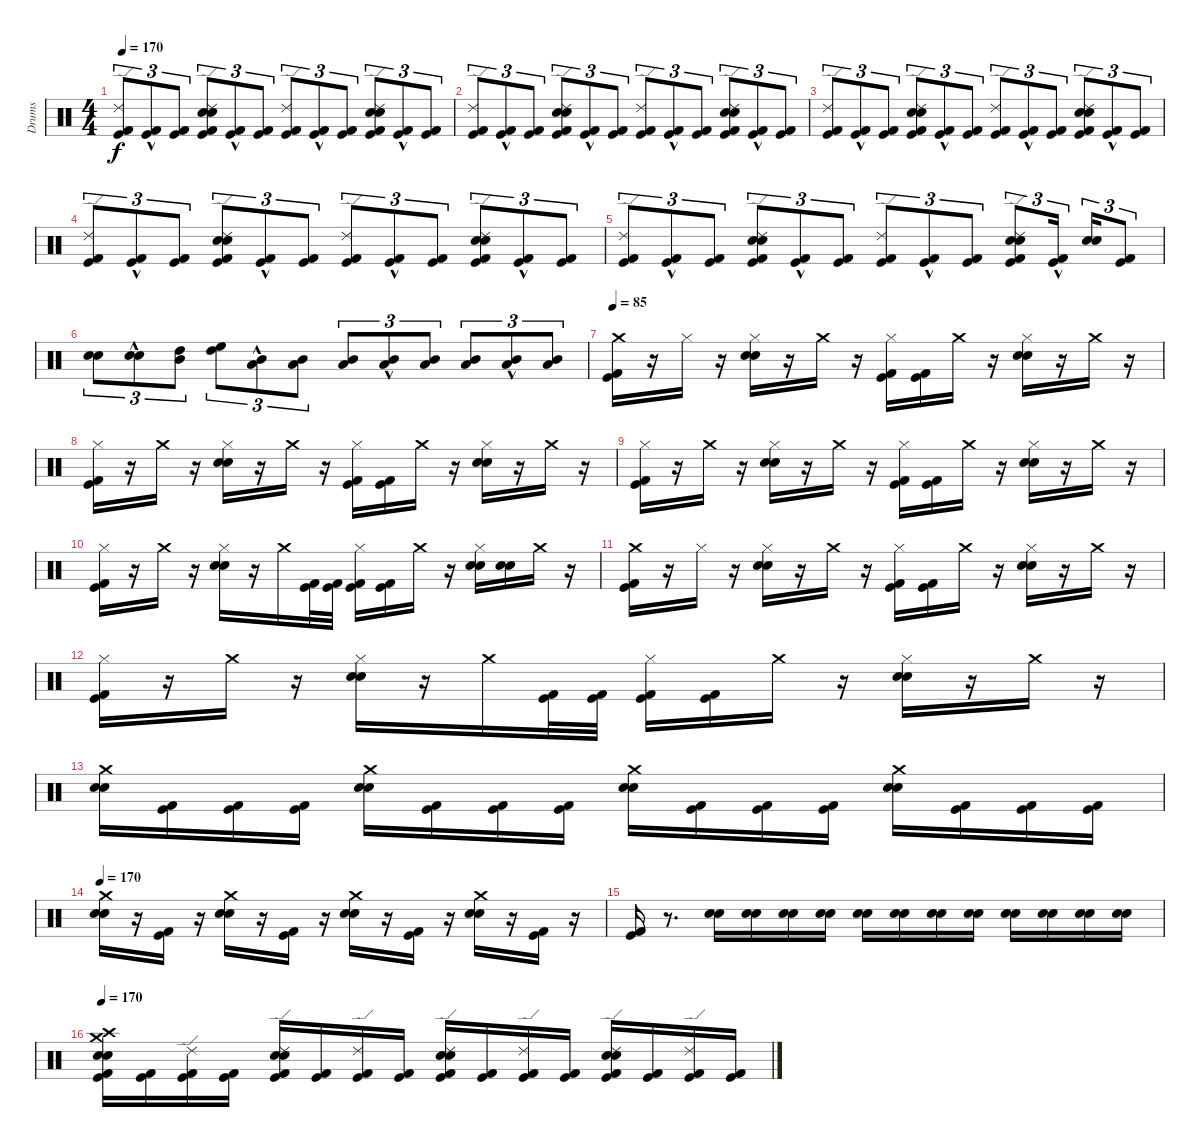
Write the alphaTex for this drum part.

\track ("Drums" "Drums") {instrument percussion}
\staff {score}
\articulation defaults
\ts (4 4)
\tempo 170
\clef neutral
\ks c
("Ride (edge) 2" "Kick (hit) 2" "Kick (hit)").8{tu (3 2) dy f} ("Kick (hit) 2"{hac} "Kick (hit)"{hac}).8{tu (3 2)} ("Kick (hit) 2" "Kick (hit)").8{tu (3 2)} ("Ride (edge) 2" "Electric Snare (hit)" "Snare (hit) 2" "Kick (hit) 2" "Kick (hit)").8{tu (3 2)} ("Kick (hit) 2"{hac} "Kick (hit)"{hac}).8{tu (3 2)} ("Kick (hit) 2" "Kick (hit)").8{tu (3 2)} ("Ride (edge) 2" "Kick (hit) 2" "Kick (hit)").8{tu (3 2)} ("Kick (hit) 2"{hac} "Kick (hit)"{hac}).8{tu (3 2)} ("Kick (hit) 2" "Kick (hit)").8{tu (3 2)} ("Ride (edge) 2" "Electric Snare (hit)" "Snare (hit) 2" "Kick (hit) 2" "Kick (hit)").8{tu (3 2)} ("Kick (hit) 2"{hac} "Kick (hit)"{hac}).8{tu (3 2)} ("Kick (hit) 2" "Kick (hit)").8{tu (3 2)} |
("Ride (edge) 2" "Kick (hit) 2" "Kick (hit)").8{tu (3 2)} ("Kick (hit) 2"{hac} "Kick (hit)"{hac}).8{tu (3 2)} ("Kick (hit) 2" "Kick (hit)").8{tu (3 2)} ("Ride (edge) 2" "Electric Snare (hit)" "Snare (hit) 2" "Kick (hit) 2" "Kick (hit)").8{tu (3 2)} ("Kick (hit) 2"{hac} "Kick (hit)"{hac}).8{tu (3 2)} ("Kick (hit) 2" "Kick (hit)").8{tu (3 2)} ("Ride (edge) 2" "Kick (hit) 2" "Kick (hit)").8{tu (3 2)} ("Kick (hit) 2"{hac} "Kick (hit)"{hac}).8{tu (3 2)} ("Kick (hit) 2" "Kick (hit)").8{tu (3 2)} ("Ride (edge) 2" "Electric Snare (hit)" "Snare (hit) 2" "Kick (hit) 2" "Kick (hit)").8{tu (3 2)} ("Kick (hit) 2"{hac} "Kick (hit)"{hac}).8{tu (3 2)} ("Kick (hit) 2" "Kick (hit)").8{tu (3 2)} |
("Ride (edge) 2" "Kick (hit) 2" "Kick (hit)").8{tu (3 2)} ("Kick (hit) 2"{hac} "Kick (hit)"{hac}).8{tu (3 2)} ("Kick (hit) 2" "Kick (hit)").8{tu (3 2)} ("Ride (edge) 2" "Electric Snare (hit)" "Snare (hit) 2" "Kick (hit) 2" "Kick (hit)").8{tu (3 2)} ("Kick (hit) 2"{hac} "Kick (hit)"{hac}).8{tu (3 2)} ("Kick (hit) 2" "Kick (hit)").8{tu (3 2)} ("Ride (edge) 2" "Kick (hit) 2" "Kick (hit)").8{tu (3 2)} ("Kick (hit) 2"{hac} "Kick (hit)"{hac}).8{tu (3 2)} ("Kick (hit) 2" "Kick (hit)").8{tu (3 2)} ("Ride (edge) 2" "Electric Snare (hit)" "Snare (hit) 2" "Kick (hit) 2" "Kick (hit)").8{tu (3 2)} ("Kick (hit) 2"{hac} "Kick (hit)"{hac}).8{tu (3 2)} ("Kick (hit) 2" "Kick (hit)").8{tu (3 2)} |
("Ride (edge) 2" "Kick (hit) 2" "Kick (hit)").8{tu (3 2)} ("Kick (hit) 2"{hac} "Kick (hit)"{hac}).8{tu (3 2)} ("Kick (hit) 2" "Kick (hit)").8{tu (3 2)} ("Ride (edge) 2" "Electric Snare (hit)" "Snare (hit) 2" "Kick (hit) 2" "Kick (hit)").8{tu (3 2)} ("Kick (hit) 2"{hac} "Kick (hit)"{hac}).8{tu (3 2)} ("Kick (hit) 2" "Kick (hit)").8{tu (3 2)} ("Ride (edge) 2" "Kick (hit) 2" "Kick (hit)").8{tu (3 2)} ("Kick (hit) 2"{hac} "Kick (hit)"{hac}).8{tu (3 2)} ("Kick (hit) 2" "Kick (hit)").8{tu (3 2)} ("Ride (edge) 2" "Electric Snare (hit)" "Snare (hit) 2" "Kick (hit) 2" "Kick (hit)").8{tu (3 2)} ("Kick (hit) 2"{hac} "Kick (hit)"{hac}).8{tu (3 2)} ("Kick (hit) 2" "Kick (hit)").8{tu (3 2)} |
("Ride (edge) 2" "Kick (hit) 2" "Kick (hit)").8{tu (3 2)} ("Kick (hit) 2"{hac} "Kick (hit)"{hac}).8{tu (3 2)} ("Kick (hit) 2" "Kick (hit)").8{tu (3 2)} ("Ride (edge) 2" "Electric Snare (hit)" "Snare (hit) 2" "Kick (hit) 2" "Kick (hit)").8{tu (3 2)} ("Kick (hit) 2"{hac} "Kick (hit)"{hac}).8{tu (3 2)} ("Kick (hit) 2" "Kick (hit)").8{tu (3 2)} ("Ride (edge) 2" "Kick (hit) 2" "Kick (hit)").8{tu (3 2)} ("Kick (hit) 2"{hac} "Kick (hit)"{hac}).8{tu (3 2)} ("Kick (hit) 2" "Kick (hit)").8{tu (3 2)} ("Snare (hit) 2" "Electric Snare (hit)" "Ride (edge) 2" "Kick (hit) 2" "Kick (hit)").8{tu (3 2)} ("Kick (hit) 2"{hac} "Kick (hit)"{hac}).16{tu (3 2)} ("Electric Snare (hit)" "Snare (hit) 2").16{tu (3 2)} ("Kick (hit) 2" "Kick (hit)").8{tu (3 2)} |
("Electric Snare (hit)" "Snare (hit) 2").8{tu (3 2)} ("Electric Snare (hit)"{hac} "Snare (hit) 2"{hac}).8{tu (3 2)} ("High Tom (hit)" "Mid Tom (hit)").8{tu (3 2)} ("High Floor Tom (hit)" "High Tom (hit)").8{tu (3 2)} ("Mid Tom (hit)"{hac} "Low Tom (hit)"{hac}).8{tu (3 2)} ("Mid Tom (hit)" "Low Tom (hit)").8{tu (3 2)} ("Mid Tom (hit)" "Low Tom (hit)").8{tu (3 2)} ("Mid Tom (hit)"{hac} "Low Tom (hit)"{hac}).8{tu (3 2)} ("Mid Tom (hit)" "Low Tom (hit)").8{tu (3 2)} ("Mid Tom (hit)" "Low Tom (hit)").8{tu (3 2)} ("Mid Tom (hit)"{hac} "Low Tom (hit)"{hac}).8{tu (3 2)} ("Mid Tom (hit)" "Low Tom (hit)").8{tu (3 2)} |
\tempo 85
("Kick (hit) 2" "Kick (hit)" "Crash medium (hit)").16 r.16 "Hi-Hat (closed)".16 r.16 ("Electric Snare (hit)" "Snare (hit) 2" "Hi-Hat (closed)").16 r.16 "Crash medium (hit)".16 r.16 ("Kick (hit) 2" "Kick (hit)" "Hi-Hat (closed)").16 ("Kick (hit) 2" "Kick (hit)").16 "Crash medium (hit)".16 r.16 ("Electric Snare (hit)" "Snare (hit) 2" "Hi-Hat (closed)").16 r.16 "Crash medium (hit)".16 r.16 |
("Kick (hit) 2" "Hi-Hat (closed)" "Kick (hit)").16 r.16 "Crash medium (hit)".16 r.16 ("Hi-Hat (closed)" "Electric Snare (hit)" "Snare (hit) 2").16 r.16 "Crash medium (hit)".16 r.16 ("Hi-Hat (closed)" "Kick (hit) 2" "Kick (hit)").16 ("Kick (hit) 2" "Kick (hit)").16 "Crash medium (hit)".16 r.16 ("Hi-Hat (closed)" "Electric Snare (hit)" "Snare (hit) 2").16 r.16 "Crash medium (hit)".16 r.16 |
("Kick (hit) 2" "Hi-Hat (closed)" "Kick (hit)").16 r.16 "Crash medium (hit)".16 r.16 ("Hi-Hat (closed)" "Electric Snare (hit)" "Snare (hit) 2").16 r.16 "Crash medium (hit)".16 r.16 ("Hi-Hat (closed)" "Kick (hit) 2" "Kick (hit)").16 ("Kick (hit) 2" "Kick (hit)").16 "Crash medium (hit)".16 r.16 ("Hi-Hat (closed)" "Electric Snare (hit)" "Snare (hit) 2").16 r.16 "Crash medium (hit)".16 r.16 |
("Kick (hit) 2" "Hi-Hat (closed)" "Kick (hit)").16 r.16 "Crash medium (hit)".16 r.16 ("Hi-Hat (closed)" "Electric Snare (hit)" "Snare (hit) 2").16 r.16 "Crash medium (hit)".16 ("Kick (hit) 2" "Kick (hit)").32 ("Kick (hit) 2" "Kick (hit)").32 ("Hi-Hat (closed)" "Kick (hit) 2" "Kick (hit)").16 ("Kick (hit) 2" "Kick (hit)").16 "Crash medium (hit)".16 r.16 ("Hi-Hat (closed)" "Electric Snare (hit)" "Snare (hit) 2").16 ("Electric Snare (hit)" "Snare (hit) 2").16 "Crash medium (hit)".16 r.16 |
("Crash medium (hit)" "Kick (hit) 2" "Kick (hit)").16 r.16 "Hi-Hat (closed)".16 r.16 ("Hi-Hat (closed)" "Electric Snare (hit)" "Snare (hit) 2").16 r.16 "Crash medium (hit)".16 r.16 ("Hi-Hat (closed)" "Kick (hit) 2" "Kick (hit)").16 ("Kick (hit) 2" "Kick (hit)").16 "Crash medium (hit)".16 r.16 ("Hi-Hat (closed)" "Electric Snare (hit)" "Snare (hit) 2").16 r.16 "Crash medium (hit)".16 r.16 |
("Kick (hit) 2" "Hi-Hat (closed)" "Kick (hit)").16 r.16 "Crash medium (hit)".16 r.16 ("Hi-Hat (closed)" "Electric Snare (hit)" "Snare (hit) 2").16 r.16 "Crash medium (hit)".16 ("Kick (hit) 2" "Kick (hit)").32 ("Kick (hit) 2" "Kick (hit)").32 ("Hi-Hat (closed)" "Kick (hit) 2" "Kick (hit)").16 ("Kick (hit) 2" "Kick (hit)").16 "Crash medium (hit)".16 r.16 ("Hi-Hat (closed)" "Electric Snare (hit)" "Snare (hit) 2").16 r.16 "Crash medium (hit)".16 r.16 |
("Crash medium (hit)" "Electric Snare (hit)" "Snare (hit) 2").16 ("Kick (hit) 2" "Kick (hit)").16 ("Kick (hit) 2" "Kick (hit)").16 ("Kick (hit) 2" "Kick (hit)").16 ("Crash medium (hit)" "Electric Snare (hit)" "Snare (hit) 2").16 ("Kick (hit) 2" "Kick (hit)").16 ("Kick (hit) 2" "Kick (hit)").16 ("Kick (hit) 2" "Kick (hit)").16 ("Crash medium (hit)" "Electric Snare (hit)" "Snare (hit) 2").16 ("Kick (hit) 2" "Kick (hit)").16 ("Kick (hit) 2" "Kick (hit)").16 ("Kick (hit) 2" "Kick (hit)").16 ("Crash medium (hit)" "Electric Snare (hit)" "Snare (hit) 2").16 ("Kick (hit) 2" "Kick (hit)").16 ("Kick (hit) 2" "Kick (hit)").16 ("Kick (hit) 2" "Kick (hit)").16 |
\tempo 170
("Crash medium (hit)" "Electric Snare (hit)" "Snare (hit) 2").16 r.16 ("Kick (hit) 2" "Kick (hit)").16 r.16 ("Crash medium (hit)" "Electric Snare (hit)" "Snare (hit) 2").16 r.16 ("Kick (hit) 2" "Kick (hit)").16 r.16 ("Crash medium (hit)" "Electric Snare (hit)" "Snare (hit) 2").16 r.16 ("Kick (hit) 2" "Kick (hit)").16 r.16 ("Crash medium (hit)" "Electric Snare (hit)" "Snare (hit) 2").16 r.16 ("Kick (hit) 2" "Kick (hit)").16 r.16 |
("Kick (hit) 2" "Kick (hit)").16 r.8{d} ("Electric Snare (hit)" "Snare (hit) 2").16 ("Electric Snare (hit)" "Snare (hit) 2").16 ("Electric Snare (hit)" "Snare (hit) 2").16 ("Electric Snare (hit)" "Snare (hit) 2").16 ("Electric Snare (hit)" "Snare (hit) 2").16 ("Electric Snare (hit)" "Snare (hit) 2").16 ("Electric Snare (hit)" "Snare (hit) 2").16 ("Electric Snare (hit)" "Snare (hit) 2").16 ("Snare (hit) 2" "Electric Snare (hit)").16 ("Snare (hit) 2" "Electric Snare (hit)").16 ("Snare (hit) 2" "Electric Snare (hit)").16 ("Snare (hit) 2" "Electric Snare (hit)").16 |
\tempo 170
("Crash high (hit)" "Crash medium (hit)" "Electric Snare (hit)" "Snare (hit) 2" "Kick (hit) 2" "Kick (hit)").16 ("Kick (hit) 2" "Kick (hit)").16 ("Ride (edge) 2" "Kick (hit) 2" "Kick (hit)").16 ("Kick (hit) 2" "Kick (hit)").16 ("Electric Snare (hit)" "Snare (hit) 2" "Ride (edge) 2" "Kick (hit) 2" "Kick (hit)").16 ("Kick (hit) 2" "Kick (hit)").16 ("Ride (edge) 2" "Kick (hit) 2" "Kick (hit)").16 ("Kick (hit) 2" "Kick (hit)").16 ("Snare (hit) 2" "Electric Snare (hit)" "Ride (edge) 2" "Kick (hit) 2" "Kick (hit)").16 ("Kick (hit) 2" "Kick (hit)").16 ("Ride (edge) 2" "Kick (hit) 2" "Kick (hit)").16 ("Kick (hit) 2" "Kick (hit)").16 ("Electric Snare (hit)" "Snare (hit) 2" "Ride (edge) 2" "Kick (hit) 2" "Kick (hit)").16 ("Kick (hit) 2" "Kick (hit)").16 ("Ride (edge) 2" "Kick (hit) 2" "Kick (hit)").16 ("Kick (hit) 2" "Kick (hit)").16
